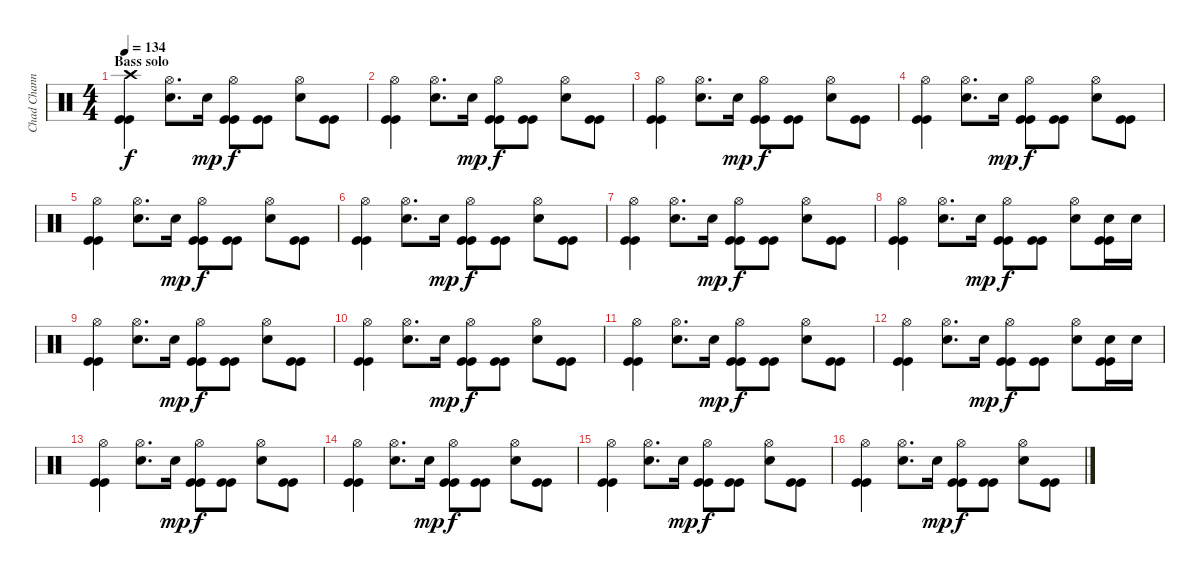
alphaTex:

\track ("Chad Channing" "Chad Chann") {instrument percussion}
\staff {score}
\articulation defaults
\ts (4 4)
\section ("" "Bass solo")
\tempo 134
\clef neutral
\ks c
("Crash high (hit)" "Kick (hit)" "Kick (hit)").4{dy f} ("Hi-Hat (open)" "Electric Snare (hit)").8{d} "Electric Snare (hit)".16{dy mp} ("Hi-Hat (open)" "Kick (hit)" "Kick (hit)").8{dy f} ("Kick (hit)" "Kick (hit)").8 ("Hi-Hat (open)" "Electric Snare (hit)").8 ("Kick (hit)" "Kick (hit)").8 |
("Hi-Hat (open)" "Kick (hit)" "Kick (hit)").4 ("Hi-Hat (open)" "Electric Snare (hit)").8{d} "Electric Snare (hit)".16{dy mp} ("Hi-Hat (open)" "Kick (hit)" "Kick (hit)").8{dy f} ("Kick (hit)" "Kick (hit)").8 ("Hi-Hat (open)" "Electric Snare (hit)").8 ("Kick (hit)" "Kick (hit)").8 |
("Hi-Hat (open)" "Kick (hit)" "Kick (hit)").4 ("Hi-Hat (open)" "Electric Snare (hit)").8{d} "Electric Snare (hit)".16{dy mp} ("Hi-Hat (open)" "Kick (hit)" "Kick (hit)").8{dy f} ("Kick (hit)" "Kick (hit)").8 ("Hi-Hat (open)" "Electric Snare (hit)").8 ("Kick (hit)" "Kick (hit)").8 |
("Hi-Hat (open)" "Kick (hit)" "Kick (hit)").4 ("Hi-Hat (open)" "Electric Snare (hit)").8{d} "Electric Snare (hit)".16{dy mp} ("Hi-Hat (open)" "Kick (hit)" "Kick (hit)").8{dy f} ("Kick (hit)" "Kick (hit)").8 ("Hi-Hat (open)" "Electric Snare (hit)").8 ("Kick (hit)" "Kick (hit)").8 |
("Hi-Hat (open)" "Kick (hit)" "Kick (hit)").4 ("Hi-Hat (open)" "Electric Snare (hit)").8{d} "Electric Snare (hit)".16{dy mp} ("Hi-Hat (open)" "Kick (hit)" "Kick (hit)").8{dy f} ("Kick (hit)" "Kick (hit)").8 ("Hi-Hat (open)" "Electric Snare (hit)").8 ("Kick (hit)" "Kick (hit)").8 |
("Hi-Hat (open)" "Kick (hit)" "Kick (hit)").4 ("Hi-Hat (open)" "Electric Snare (hit)").8{d} "Electric Snare (hit)".16{dy mp} ("Hi-Hat (open)" "Kick (hit)" "Kick (hit)").8{dy f} ("Kick (hit)" "Kick (hit)").8 ("Hi-Hat (open)" "Electric Snare (hit)").8 ("Kick (hit)" "Kick (hit)").8 |
("Hi-Hat (open)" "Kick (hit)" "Kick (hit)").4 ("Hi-Hat (open)" "Electric Snare (hit)").8{d} "Electric Snare (hit)".16{dy mp} ("Hi-Hat (open)" "Kick (hit)" "Kick (hit)").8{dy f} ("Kick (hit)" "Kick (hit)").8 ("Hi-Hat (open)" "Electric Snare (hit)").8 ("Kick (hit)" "Kick (hit)").8 |
("Hi-Hat (open)" "Kick (hit)" "Kick (hit)").4 ("Hi-Hat (open)" "Electric Snare (hit)").8{d} "Electric Snare (hit)".16{dy mp} ("Hi-Hat (open)" "Kick (hit)" "Kick (hit)").8{dy f} ("Kick (hit)" "Kick (hit)").8 ("Hi-Hat (open)" "Electric Snare (hit)").8 ("Electric Snare (hit)" "Kick (hit)" "Kick (hit)").16 "Electric Snare (hit)".16 |
("Hi-Hat (open)" "Kick (hit)" "Kick (hit)").4 ("Hi-Hat (open)" "Electric Snare (hit)").8{d} "Electric Snare (hit)".16{dy mp} ("Hi-Hat (open)" "Kick (hit)" "Kick (hit)").8{dy f} ("Kick (hit)" "Kick (hit)").8 ("Hi-Hat (open)" "Electric Snare (hit)").8 ("Kick (hit)" "Kick (hit)").8 |
("Hi-Hat (open)" "Kick (hit)" "Kick (hit)").4 ("Hi-Hat (open)" "Electric Snare (hit)").8{d} "Electric Snare (hit)".16{dy mp} ("Hi-Hat (open)" "Kick (hit)" "Kick (hit)").8{dy f} ("Kick (hit)" "Kick (hit)").8 ("Hi-Hat (open)" "Electric Snare (hit)").8 ("Kick (hit)" "Kick (hit)").8 |
("Hi-Hat (open)" "Kick (hit)" "Kick (hit)").4 ("Hi-Hat (open)" "Electric Snare (hit)").8{d} "Electric Snare (hit)".16{dy mp} ("Hi-Hat (open)" "Kick (hit)" "Kick (hit)").8{dy f} ("Kick (hit)" "Kick (hit)").8 ("Hi-Hat (open)" "Electric Snare (hit)").8 ("Kick (hit)" "Kick (hit)").8 |
("Hi-Hat (open)" "Kick (hit)" "Kick (hit)").4 ("Hi-Hat (open)" "Electric Snare (hit)").8{d} "Electric Snare (hit)".16{dy mp} ("Hi-Hat (open)" "Kick (hit)" "Kick (hit)").8{dy f} ("Kick (hit)" "Kick (hit)").8 ("Hi-Hat (open)" "Electric Snare (hit)").8 ("Electric Snare (hit)" "Kick (hit)" "Kick (hit)").16 "Electric Snare (hit)".16 |
("Hi-Hat (open)" "Kick (hit)" "Kick (hit)").4 ("Hi-Hat (open)" "Electric Snare (hit)").8{d} "Electric Snare (hit)".16{dy mp} ("Hi-Hat (open)" "Kick (hit)" "Kick (hit)").8{dy f} ("Kick (hit)" "Kick (hit)").8 ("Hi-Hat (open)" "Electric Snare (hit)").8 ("Kick (hit)" "Kick (hit)").8 |
("Hi-Hat (open)" "Kick (hit)" "Kick (hit)").4 ("Hi-Hat (open)" "Electric Snare (hit)").8{d} "Electric Snare (hit)".16{dy mp} ("Hi-Hat (open)" "Kick (hit)" "Kick (hit)").8{dy f} ("Kick (hit)" "Kick (hit)").8 ("Hi-Hat (open)" "Electric Snare (hit)").8 ("Kick (hit)" "Kick (hit)").8 |
("Hi-Hat (open)" "Kick (hit)" "Kick (hit)").4 ("Hi-Hat (open)" "Electric Snare (hit)").8{d} "Electric Snare (hit)".16{dy mp} ("Hi-Hat (open)" "Kick (hit)" "Kick (hit)").8{dy f} ("Kick (hit)" "Kick (hit)").8 ("Hi-Hat (open)" "Electric Snare (hit)").8 ("Kick (hit)" "Kick (hit)").8 |
("Hi-Hat (open)" "Kick (hit)" "Kick (hit)").4 ("Hi-Hat (open)" "Electric Snare (hit)").8{d} "Electric Snare (hit)".16{dy mp} ("Hi-Hat (open)" "Kick (hit)" "Kick (hit)").8{dy f} ("Kick (hit)" "Kick (hit)").8 ("Hi-Hat (open)" "Electric Snare (hit)").8 ("Kick (hit)" "Kick (hit)").8
